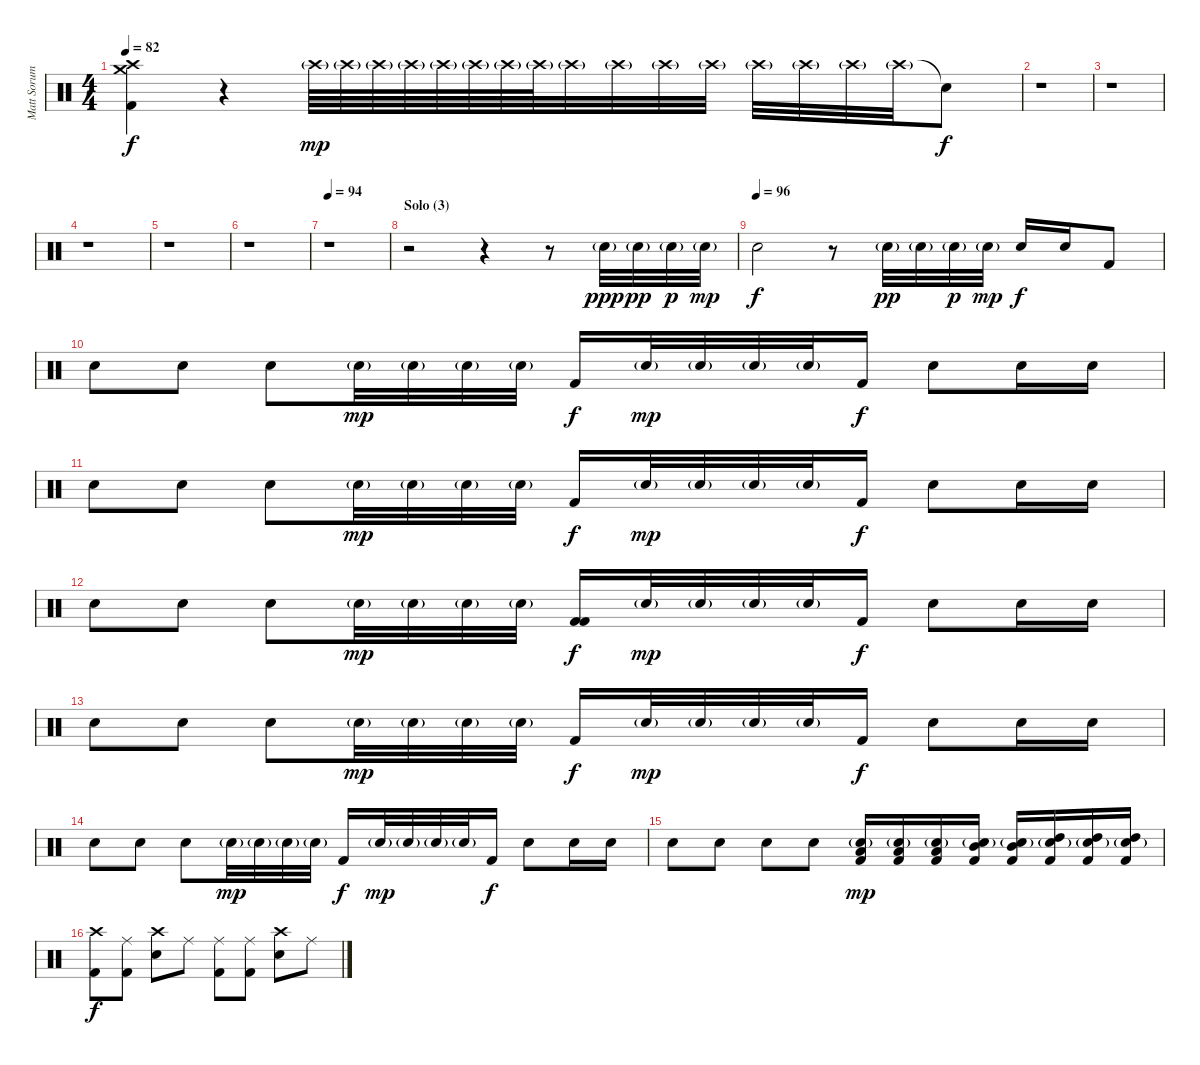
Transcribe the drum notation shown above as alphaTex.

\track ("Matt Sorum" "Matt Sorum") {instrument percussion}
\staff {score}
\articulation defaults
\ts (4 4)
\tempo 82
\clef neutral
\ks c
("Kick (hit) 2" "Crash medium (hit)" "Crash high (hit)").4{dy f} r.4 "Crash high (hit)"{g}.64{dy mp} "Crash high (hit)"{g}.64 "Crash high (hit)"{g}.64 "Crash high (hit)"{g}.64 "Crash high (hit)"{g}.64 "Crash high (hit)"{g}.64 "Crash high (hit)"{g}.64 "Crash high (hit)"{g}.64 "Crash high (hit)"{g}.32 "Crash high (hit)"{g}.32 "Crash high (hit)"{g}.32 "Crash high (hit)"{g}.32 "Crash high (hit)"{g}.32 "Crash high (hit)"{g}.32 "Crash high (hit)"{g}.32 "Crash high (hit)"{g}.32 "Snare (hit)"{t}.8{dy f} |
r.1 |
r.1 |
r.1 |
r.1 |
r.1 |
\tempo 94
r.1 |
\section ("" "Solo (3)")
r.2 r.4 r.8 "Electric Snare (hit)"{g}.32{dy ppp} "Electric Snare (hit)"{g}.32{dy pp} "Electric Snare (hit)"{g}.32{dy p} "Electric Snare (hit)"{g}.32{dy mp} |
\tempo (96)
"Electric Snare (hit)".2{dy f} r.8 "Electric Snare (hit)"{g}.32{dy pp} "Electric Snare (hit)"{g}.32 "Electric Snare (hit)"{g}.32{dy p} "Electric Snare (hit)"{g}.32{dy mp} "Electric Snare (hit)".16{dy f} "Electric Snare (hit)".16 "Kick (hit) 2".8 |
"Electric Snare (hit)".8 "Electric Snare (hit)".8 "Electric Snare (hit)".8 "Electric Snare (hit)"{g}.32{dy mp} "Electric Snare (hit)"{g}.32 "Electric Snare (hit)"{g}.32 "Electric Snare (hit)"{g}.32 "Kick (hit) 2".16{dy f} "Electric Snare (hit)"{g}.32{dy mp} "Electric Snare (hit)"{g}.32 "Electric Snare (hit)"{g}.32 "Electric Snare (hit)"{g}.32 "Kick (hit) 2".16{dy f} "Electric Snare (hit)".8 "Electric Snare (hit)".16 "Electric Snare (hit)".16 |
"Electric Snare (hit)".8 "Electric Snare (hit)".8 "Electric Snare (hit)".8 "Electric Snare (hit)"{g}.32{dy mp} "Electric Snare (hit)"{g}.32 "Electric Snare (hit)"{g}.32 "Electric Snare (hit)"{g}.32 "Kick (hit) 2".16{dy f} "Electric Snare (hit)"{g}.32{dy mp} "Electric Snare (hit)"{g}.32 "Electric Snare (hit)"{g}.32 "Electric Snare (hit)"{g}.32 "Kick (hit) 2".16{dy f} "Electric Snare (hit)".8 "Electric Snare (hit)".16 "Electric Snare (hit)".16 |
"Electric Snare (hit)".8 "Electric Snare (hit)".8 "Electric Snare (hit)".8 "Electric Snare (hit)"{g}.32{dy mp} "Electric Snare (hit)"{g}.32 "Electric Snare (hit)"{g}.32 "Electric Snare (hit)"{g}.32 ("Kick (hit) 2" "Kick (hit) 2").16{dy f} "Electric Snare (hit)"{g}.32{dy mp} "Electric Snare (hit)"{g}.32 "Electric Snare (hit)"{g}.32 "Electric Snare (hit)"{g}.32 "Kick (hit) 2".16{dy f} "Electric Snare (hit)".8 "Electric Snare (hit)".16 "Electric Snare (hit)".16 |
"Electric Snare (hit)".8 "Electric Snare (hit)".8 "Electric Snare (hit)".8 "Electric Snare (hit)"{g}.32{dy mp} "Electric Snare (hit)"{g}.32 "Electric Snare (hit)"{g}.32 "Electric Snare (hit)"{g}.32 "Kick (hit) 2".16{dy f} "Electric Snare (hit)"{g}.32{dy mp} "Electric Snare (hit)"{g}.32 "Electric Snare (hit)"{g}.32 "Electric Snare (hit)"{g}.32 "Kick (hit) 2".16{dy f} "Electric Snare (hit)".8 "Electric Snare (hit)".16 "Electric Snare (hit)".16 |
"Electric Snare (hit)".8 "Electric Snare (hit)".8 "Electric Snare (hit)".8 "Electric Snare (hit)"{g}.32{dy mp} "Electric Snare (hit)"{g}.32 "Electric Snare (hit)"{g}.32 "Electric Snare (hit)"{g}.32 "Kick (hit) 2".16{dy f} "Electric Snare (hit)"{g}.32{dy mp} "Electric Snare (hit)"{g}.32 "Electric Snare (hit)"{g}.32 "Electric Snare (hit)"{g}.32 "Kick (hit) 2".16{dy f} "Electric Snare (hit)".8 "Electric Snare (hit)".16 "Electric Snare (hit)".16 |
"Electric Snare (hit)".8 "Electric Snare (hit)".8 "Electric Snare (hit)".8 "Electric Snare (hit)".8 ("Electric Snare (hit)"{g} "Low Tom (hit)" "Kick (hit) 2").16{dy mp volume 10} ("Electric Snare (hit)"{g} "Low Tom (hit)" "Kick (hit) 2").16 ("Electric Snare (hit)"{g} "Low Tom (hit)" "Kick (hit) 2").16 ("Electric Snare (hit)"{g} "Mid Tom (hit)" "Kick (hit) 2").16{volume 13} ("Electric Snare (hit)"{g} "Mid Tom (hit)" "Kick (hit) 2").16 ("Electric Snare (hit)"{g} "High Tom (hit)" "Kick (hit) 2").16 ("Electric Snare (hit)"{g} "High Tom (hit)" "Kick (hit) 2").16{volume 14} ("Electric Snare (hit)"{g} "High Tom (hit)" "Kick (hit) 2").16 |
("Crash high (hit)" "Kick (hit) 2").8{dy f} ("Ride (middle)" "Kick (hit) 2").8 ("Crash high (hit)" "Electric Snare (hit)").8 "Ride (middle)".8 ("Ride (middle)" "Kick (hit) 2").8 ("Ride (middle)" "Kick (hit) 2").8 ("Crash high (hit)" "Electric Snare (hit)").8 "Ride (middle)".8
